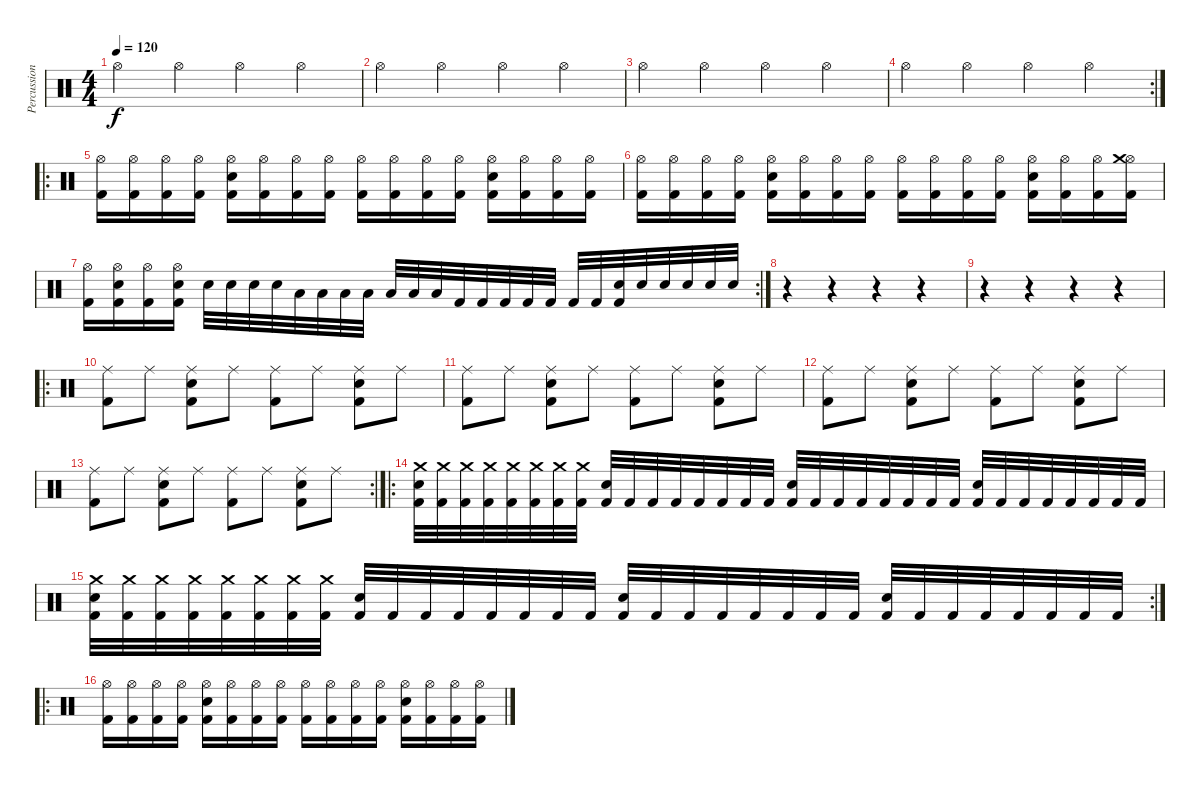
\track ("Percussion" "Percussion") {instrument percussion}
\staff {score}
\articulation defaults
\ts (4 4)
\tempo 120
\clef neutral
\ks c "Hi-Hat (open)".4{dy f} "Hi-Hat (open)".4 "Hi-Hat (open)".4 "Hi-Hat (open)".4
|
"Hi-Hat (open)".4 "Hi-Hat (open)".4 "Hi-Hat (open)".4 "Hi-Hat (open)".4 |
"Hi-Hat (open)".4 "Hi-Hat (open)".4 "Hi-Hat (open)".4 "Hi-Hat (open)".4 |
\rc 2 "Hi-Hat (open)".4 "Hi-Hat (open)".4 "Hi-Hat (open)".4 "Hi-Hat (open)".4
|
\ro
("Hi-Hat (open)" "Kick (hit) 2").16 ("Hi-Hat (open)" "Kick (hit) 2").16 ("Hi-Hat (open)" "Kick (hit) 2").16 ("Hi-Hat (open)" "Kick (hit) 2").16 ("Hi-Hat (open)" "Snare (hit) 2" "Kick (hit) 2").16 ("Hi-Hat (open)" "Kick (hit) 2").16 ("Hi-Hat (open)" "Kick (hit) 2").16 ("Hi-Hat (open)" "Kick (hit) 2").16 ("Hi-Hat (open)" "Kick (hit) 2").16 ("Hi-Hat (open)" "Kick (hit) 2").16 ("Hi-Hat (open)" "Kick (hit) 2").16 ("Hi-Hat (open)" "Kick (hit) 2").16 ("Hi-Hat (open)" "Snare (hit) 2" "Kick (hit) 2").16 ("Hi-Hat (open)" "Kick (hit) 2").16 ("Hi-Hat (open)" "Kick (hit) 2").16 ("Hi-Hat (open)" "Kick (hit) 2").16 |
("Hi-Hat (open)" "Kick (hit) 2").16 ("Hi-Hat (open)" "Kick (hit) 2").16 ("Hi-Hat (open)" "Kick (hit) 2").16 ("Hi-Hat (open)" "Kick (hit) 2").16 ("Hi-Hat (open)" "Snare (hit) 2" "Kick (hit) 2").16 ("Hi-Hat (open)" "Kick (hit) 2").16 ("Hi-Hat (open)" "Kick (hit) 2").16 ("Hi-Hat (open)" "Kick (hit) 2").16 ("Hi-Hat (open)" "Kick (hit) 2").16 ("Hi-Hat (open)" "Kick (hit) 2").16 ("Hi-Hat (open)" "Kick (hit) 2").16 ("Hi-Hat (open)" "Kick (hit) 2").16 ("Hi-Hat (open)" "Snare (hit) 2" "Kick (hit) 2").16 ("Hi-Hat (open)" "Kick (hit) 2").16 ("Hi-Hat (open)" "Kick (hit) 2").16 ("Hi-Hat (open)" "Crash medium (hit)" "Kick (hit) 2").16 |
\rc 2
("Hi-Hat (open)" "Kick (hit) 2").16 ("Hi-Hat (open)" "Snare (hit) 2" "Kick (hit) 2").16 ("Hi-Hat (open)" "Kick (hit) 2").16 ("Hi-Hat (open)" "Snare (hit) 2" "Kick (hit) 2").16 "Snare (hit) 2".32 "Snare (hit) 2".32 "Snare (hit) 2".32 "Snare (hit) 2".32 "Low Tom (hit)".32 "Low Tom (hit)".32 "Low Tom (hit)".32 "Low Tom (hit)".32 "Low Tom (hit)".32 "Low Tom (hit)".32 "Low Tom (hit)".32 "Kick (hit) 2".32 "Kick (hit) 2".32 "Kick (hit) 2".32 "Kick (hit) 2".32 "Kick (hit) 2".32 "Kick (hit) 2".32 "Kick (hit) 2".32 ("Snare (hit) 2" "Kick (hit) 2").32 "Snare (hit) 2".32 "Snare (hit) 2".32 "Snare (hit) 2".32 "Snare (hit) 2".32 "Snare (hit) 2".32 |
r.4 r.4 r.4 r.4 |
r.4 r.4 r.4 r.4 |
\ro
("Ride (middle)" "Kick (hit) 2").8 "Ride (middle)".8 ("Ride (middle)" "Snare (hit) 2" "Kick (hit) 2").8 "Ride (middle)".8 ("Ride (middle)" "Kick (hit) 2").8 "Ride (middle)".8 ("Ride (middle)" "Snare (hit) 2" "Kick (hit) 2").8 "Ride (middle)".8 |
("Ride (middle)" "Kick (hit) 2").8 "Ride (middle)".8 ("Ride (middle)" "Snare (hit) 2" "Kick (hit) 2").8 "Ride (middle)".8 ("Ride (middle)" "Kick (hit) 2").8 "Ride (middle)".8 ("Ride (middle)" "Snare (hit) 2" "Kick (hit) 2").8 "Ride (middle)".8 |
("Ride (middle)" "Kick (hit) 2").8 "Ride (middle)".8 ("Ride (middle)" "Snare (hit) 2" "Kick (hit) 2").8 "Ride (middle)".8 ("Ride (middle)" "Kick (hit) 2").8 "Ride (middle)".8 ("Ride (middle)" "Snare (hit) 2" "Kick (hit) 2").8 "Ride (middle)".8 |
\rc 2
("Ride (middle)" "Kick (hit) 2").8 "Ride (middle)".8 ("Ride (middle)" "Snare (hit) 2" "Kick (hit) 2").8 "Ride (middle)".8 ("Ride (middle)" "Kick (hit) 2").8 "Ride (middle)".8 ("Ride (middle)" "Snare (hit) 2" "Kick (hit) 2").8 "Ride (middle)".8 |
\ro
("Crash medium (hit)" "Snare (hit) 2" "Kick (hit) 2").32 ("Crash medium (hit)" "Kick (hit) 2").32 ("Crash medium (hit)" "Kick (hit) 2").32 ("Crash medium (hit)" "Kick (hit) 2").32 ("Crash medium (hit)" "Kick (hit) 2").32 ("Crash medium (hit)" "Kick (hit) 2").32 ("Crash medium (hit)" "Kick (hit) 2").32 ("Crash medium (hit)" "Kick (hit) 2").32 ("Snare (hit) 2" "Kick (hit) 2").32 "Kick (hit) 2".32 "Kick (hit) 2".32 "Kick (hit) 2".32 "Kick (hit) 2".32 "Kick (hit) 2".32 "Kick (hit) 2".32 "Kick (hit) 2".32 ("Snare (hit) 2" "Kick (hit) 2").32 "Kick (hit) 2".32 "Kick (hit) 2".32 "Kick (hit) 2".32 "Kick (hit) 2".32 "Kick (hit) 2".32 "Kick (hit) 2".32 "Kick (hit) 2".32 ("Snare (hit) 2" "Kick (hit) 2").32 "Kick (hit) 2".32 "Kick (hit) 2".32 "Kick (hit) 2".32 "Kick (hit) 2".32 "Kick (hit) 2".32 "Kick (hit) 2".32 "Kick (hit) 2".32 |
\rc 2
("Crash medium (hit)" "Snare (hit) 2" "Kick (hit) 2").32 ("Crash medium (hit)" "Kick (hit) 2").32 ("Crash medium (hit)" "Kick (hit) 2").32 ("Crash medium (hit)" "Kick (hit) 2").32 ("Crash medium (hit)" "Kick (hit) 2").32 ("Crash medium (hit)" "Kick (hit) 2").32 ("Crash medium (hit)" "Kick (hit) 2").32 ("Crash medium (hit)" "Kick (hit) 2").32 ("Snare (hit) 2" "Kick (hit) 2").32 "Kick (hit) 2".32 "Kick (hit) 2".32 "Kick (hit) 2".32 "Kick (hit) 2".32 "Kick (hit) 2".32 "Kick (hit) 2".32 "Kick (hit) 2".32 ("Snare (hit) 2" "Kick (hit) 2").32 "Kick (hit) 2".32 "Kick (hit) 2".32 "Kick (hit) 2".32 "Kick (hit) 2".32 "Kick (hit) 2".32 "Kick (hit) 2".32 "Kick (hit) 2".32 ("Snare (hit) 2" "Kick (hit) 2").32 "Kick (hit) 2".32 "Kick (hit) 2".32 "Kick (hit) 2".32 "Kick (hit) 2".32 "Kick (hit) 2".32 "Kick (hit) 2".32 "Kick (hit) 2".32 |
\ro
("Hi-Hat (open)" "Kick (hit) 2").16 ("Hi-Hat (open)" "Kick (hit) 2").16 ("Hi-Hat (open)" "Kick (hit) 2").16 ("Hi-Hat (open)" "Kick (hit) 2").16 ("Hi-Hat (open)" "Snare (hit) 2" "Kick (hit) 2").16 ("Hi-Hat (open)" "Kick (hit) 2").16 ("Hi-Hat (open)" "Kick (hit) 2").16 ("Hi-Hat (open)" "Kick (hit) 2").16 ("Hi-Hat (open)" "Kick (hit) 2").16 ("Hi-Hat (open)" "Kick (hit) 2").16 ("Hi-Hat (open)" "Kick (hit) 2").16 ("Hi-Hat (open)" "Kick (hit) 2").16 ("Hi-Hat (open)" "Snare (hit) 2" "Kick (hit) 2").16 ("Hi-Hat (open)" "Kick (hit) 2").16 ("Hi-Hat (open)" "Kick (hit) 2").16 ("Hi-Hat (open)" "Kick (hit) 2").16
